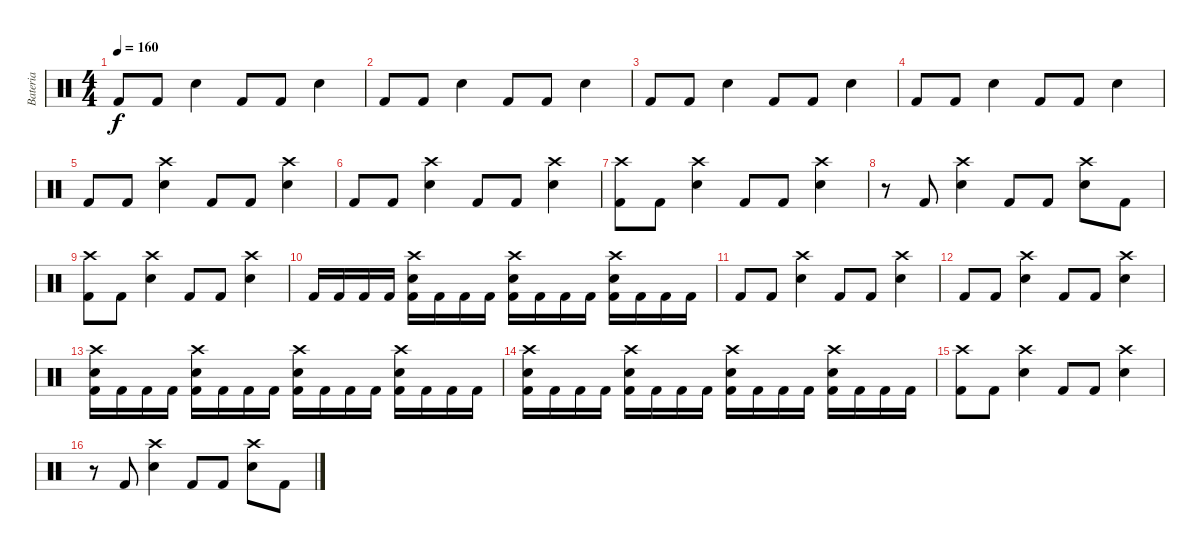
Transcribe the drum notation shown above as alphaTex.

\track ("Bateria" "Bateria") {instrument percussion}
\staff {score}
\articulation defaults
\ts (4 4)
\tempo 160
\clef neutral
\ks c "Kick (hit) 2".8{dy f} "Kick (hit) 2".8 "Electric Snare (hit)".4 "Kick (hit) 2".8 "Kick (hit) 2".8 "Electric Snare (hit)".4
|
"Kick (hit) 2".8 "Kick (hit) 2".8 "Electric Snare (hit)".4 "Kick (hit) 2".8 "Kick (hit) 2".8 "Electric Snare (hit)".4 |
"Kick (hit) 2".8 "Kick (hit) 2".8 "Electric Snare (hit)".4 "Kick (hit) 2".8 "Kick (hit) 2".8 "Electric Snare (hit)".4 |
"Kick (hit) 2".8 "Kick (hit) 2".8 "Electric Snare (hit)".4 "Kick (hit) 2".8 "Kick (hit) 2".8 "Electric Snare (hit)".4 |
"Kick (hit) 2".8 "Kick (hit) 2".8 ("Electric Snare (hit)" "Crash high (hit)").4 "Kick (hit) 2".8 "Kick (hit) 2".8 ("Electric Snare (hit)" "Crash high (hit)").4 |
"Kick (hit) 2".8 "Kick (hit) 2".8 ("Electric Snare (hit)" "Crash high (hit)").4 "Kick (hit) 2".8 "Kick (hit) 2".8 ("Electric Snare (hit)" "Crash high (hit)").4 |
("Kick (hit) 2" "Crash high (hit)").8 "Kick (hit) 2".8 ("Electric Snare (hit)" "Crash high (hit)").4 "Kick (hit) 2".8 "Kick (hit) 2".8 ("Electric Snare (hit)" "Crash high (hit)").4 |
r.8 "Kick (hit) 2".8 ("Snare (hit) 2" "Crash high (hit)").4 "Kick (hit) 2".8 "Kick (hit) 2".8 ("Crash high (hit)" "Snare (hit) 2").8 "Kick (hit) 2".8 |
("Kick (hit) 2" "Crash high (hit)").8 "Kick (hit) 2".8 ("Electric Snare (hit)" "Crash high (hit)").4 "Kick (hit) 2".8 "Kick (hit) 2".8 ("Electric Snare (hit)" "Crash high (hit)").4 |
"Kick (hit) 2".16 "Kick (hit) 2".16 "Kick (hit) 2".16 "Kick (hit) 2".16 ("Crash high (hit)" "Kick (hit) 2" "Electric Snare (hit)").16 "Kick (hit) 2".16 "Kick (hit) 2".16 "Kick (hit) 2".16 ("Crash high (hit)" "Kick (hit) 2" "Electric Snare (hit)").16 "Kick (hit) 2".16 "Kick (hit) 2".16 "Kick (hit) 2".16 ("Crash high (hit)" "Kick (hit) 2" "Electric Snare (hit)").16 "Kick (hit) 2".16 "Kick (hit) 2".16 "Kick (hit) 2".16 |
"Kick (hit) 2".8 "Kick (hit) 2".8 ("Electric Snare (hit)" "Crash high (hit)").4 "Kick (hit) 2".8 "Kick (hit) 2".8 ("Electric Snare (hit)" "Crash high (hit)").4 |
"Kick (hit) 2".8 "Kick (hit) 2".8 ("Electric Snare (hit)" "Crash high (hit)").4 "Kick (hit) 2".8 "Kick (hit) 2".8 ("Electric Snare (hit)" "Crash high (hit)").4 |
("Crash high (hit)" "Kick (hit) 2" "Electric Snare (hit)").16 "Kick (hit) 2".16 "Kick (hit) 2".16 "Kick (hit) 2".16 ("Crash high (hit)" "Kick (hit) 2" "Electric Snare (hit)").16 "Kick (hit) 2".16 "Kick (hit) 2".16 "Kick (hit) 2".16 ("Crash high (hit)" "Kick (hit) 2" "Electric Snare (hit)").16 "Kick (hit) 2".16 "Kick (hit) 2".16 "Kick (hit) 2".16 ("Crash high (hit)" "Kick (hit) 2" "Electric Snare (hit)").16 "Kick (hit) 2".16 "Kick (hit) 2".16 "Kick (hit) 2".16 |
("Crash high (hit)" "Kick (hit) 2" "Electric Snare (hit)").16 "Kick (hit) 2".16 "Kick (hit) 2".16 "Kick (hit) 2".16 ("Crash high (hit)" "Kick (hit) 2" "Electric Snare (hit)").16 "Kick (hit) 2".16 "Kick (hit) 2".16 "Kick (hit) 2".16 ("Crash high (hit)" "Kick (hit) 2" "Electric Snare (hit)").16 "Kick (hit) 2".16 "Kick (hit) 2".16 "Kick (hit) 2".16 ("Crash high (hit)" "Kick (hit) 2" "Electric Snare (hit)").16 "Kick (hit) 2".16 "Kick (hit) 2".16 "Kick (hit) 2".16 |
("Kick (hit) 2" "Crash high (hit)").8 "Kick (hit) 2".8 ("Electric Snare (hit)" "Crash high (hit)").4 "Kick (hit) 2".8 "Kick (hit) 2".8 ("Electric Snare (hit)" "Crash high (hit)").4 |
r.8 "Kick (hit) 2".8 ("Snare (hit) 2" "Crash high (hit)").4 "Kick (hit) 2".8 "Kick (hit) 2".8 ("Crash high (hit)" "Snare (hit) 2").8 "Kick (hit) 2".8
